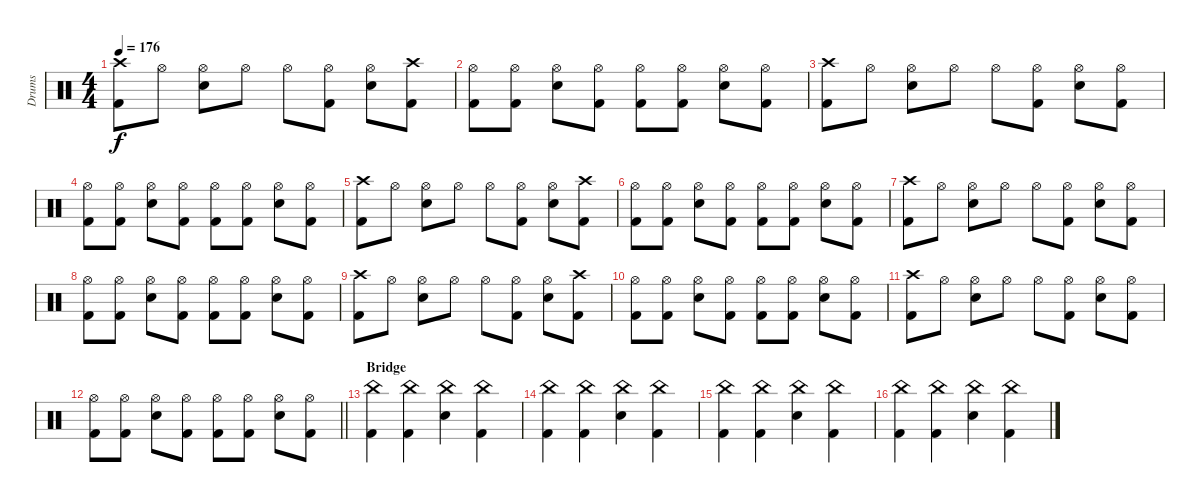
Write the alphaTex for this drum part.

\track ("Drums" "Drums") {instrument percussion}
\staff {score}
\articulation defaults
\ts (4 4)
\tempo 176
\clef neutral
\ks c
("Crash high (hit)" "Kick (hit) 2").8{dy f} "Hi-Hat (open)".8 ("Hi-Hat (open)" "Electric Snare (hit)").8 "Hi-Hat (open)".8 "Hi-Hat (open)".8 ("Hi-Hat (open)" "Kick (hit) 2").8 ("Hi-Hat (open)" "Electric Snare (hit)").8 ("Crash high (hit)" "Kick (hit) 2").8 |
("Hi-Hat (open)" "Kick (hit) 2").8 ("Hi-Hat (open)" "Kick (hit) 2").8 ("Hi-Hat (open)" "Electric Snare (hit)").8 ("Hi-Hat (open)" "Kick (hit) 2").8 ("Hi-Hat (open)" "Kick (hit) 2").8 ("Hi-Hat (open)" "Kick (hit) 2").8 ("Hi-Hat (open)" "Electric Snare (hit)").8 ("Hi-Hat (open)" "Kick (hit) 2").8 |
("Crash high (hit)" "Kick (hit) 2").8 "Hi-Hat (open)".8 ("Hi-Hat (open)" "Electric Snare (hit)").8 "Hi-Hat (open)".8 "Hi-Hat (open)".8 ("Hi-Hat (open)" "Kick (hit) 2").8 ("Hi-Hat (open)" "Electric Snare (hit)").8 ("Hi-Hat (open)" "Kick (hit) 2").8 |
("Hi-Hat (open)" "Kick (hit) 2").8 ("Hi-Hat (open)" "Kick (hit) 2").8 ("Hi-Hat (open)" "Electric Snare (hit)").8 ("Hi-Hat (open)" "Kick (hit) 2").8 ("Hi-Hat (open)" "Kick (hit) 2").8 ("Hi-Hat (open)" "Kick (hit) 2").8 ("Hi-Hat (open)" "Electric Snare (hit)").8 ("Hi-Hat (open)" "Kick (hit) 2").8 |
("Crash high (hit)" "Kick (hit) 2").8 "Hi-Hat (open)".8 ("Hi-Hat (open)" "Electric Snare (hit)").8 "Hi-Hat (open)".8 "Hi-Hat (open)".8 ("Hi-Hat (open)" "Kick (hit) 2").8 ("Hi-Hat (open)" "Electric Snare (hit)").8 ("Crash high (hit)" "Kick (hit) 2").8 |
("Hi-Hat (open)" "Kick (hit) 2").8 ("Hi-Hat (open)" "Kick (hit) 2").8 ("Hi-Hat (open)" "Electric Snare (hit)").8 ("Hi-Hat (open)" "Kick (hit) 2").8 ("Hi-Hat (open)" "Kick (hit) 2").8 ("Hi-Hat (open)" "Kick (hit) 2").8 ("Hi-Hat (open)" "Electric Snare (hit)").8 ("Hi-Hat (open)" "Kick (hit) 2").8 |
("Crash high (hit)" "Kick (hit) 2").8 "Hi-Hat (open)".8 ("Hi-Hat (open)" "Electric Snare (hit)").8 "Hi-Hat (open)".8 "Hi-Hat (open)".8 ("Hi-Hat (open)" "Kick (hit) 2").8 ("Hi-Hat (open)" "Electric Snare (hit)").8 ("Hi-Hat (open)" "Kick (hit) 2").8 |
("Hi-Hat (open)" "Kick (hit) 2").8 ("Hi-Hat (open)" "Kick (hit) 2").8 ("Hi-Hat (open)" "Electric Snare (hit)").8 ("Hi-Hat (open)" "Kick (hit) 2").8 ("Hi-Hat (open)" "Kick (hit) 2").8 ("Hi-Hat (open)" "Kick (hit) 2").8 ("Hi-Hat (open)" "Electric Snare (hit)").8 ("Hi-Hat (open)" "Kick (hit) 2").8 |
("Crash high (hit)" "Kick (hit) 2").8 "Hi-Hat (open)".8 ("Hi-Hat (open)" "Electric Snare (hit)").8 "Hi-Hat (open)".8 "Hi-Hat (open)".8 ("Hi-Hat (open)" "Kick (hit) 2").8 ("Hi-Hat (open)" "Electric Snare (hit)").8 ("Crash high (hit)" "Kick (hit) 2").8 |
("Hi-Hat (open)" "Kick (hit) 2").8 ("Hi-Hat (open)" "Kick (hit) 2").8 ("Hi-Hat (open)" "Electric Snare (hit)").8 ("Hi-Hat (open)" "Kick (hit) 2").8 ("Hi-Hat (open)" "Kick (hit) 2").8 ("Hi-Hat (open)" "Kick (hit) 2").8 ("Hi-Hat (open)" "Electric Snare (hit)").8 ("Hi-Hat (open)" "Kick (hit) 2").8 |
("Crash high (hit)" "Kick (hit) 2").8 "Hi-Hat (open)".8 ("Hi-Hat (open)" "Electric Snare (hit)").8 "Hi-Hat (open)".8 "Hi-Hat (open)".8 ("Hi-Hat (open)" "Kick (hit) 2").8 ("Hi-Hat (open)" "Electric Snare (hit)").8 ("Hi-Hat (open)" "Kick (hit) 2").8 |
\barLineRight lightlight
("Hi-Hat (open)" "Kick (hit) 2").8 ("Hi-Hat (open)" "Kick (hit) 2").8 ("Hi-Hat (open)" "Electric Snare (hit)").8 ("Hi-Hat (open)" "Kick (hit) 2").8 ("Hi-Hat (open)" "Kick (hit) 2").8 ("Hi-Hat (open)" "Kick (hit) 2").8 ("Hi-Hat (open)" "Electric Snare (hit)").8 ("Hi-Hat (open)" "Kick (hit) 2").8 |
\section ("" "Bridge")
("China (hit)" "Kick (hit) 2").4 ("China (hit)" "Kick (hit) 2").4 ("China (hit)" "Electric Snare (hit)").4 ("China (hit)" "Kick (hit) 2").4 |
("China (hit)" "Kick (hit) 2").4 ("China (hit)" "Kick (hit) 2").4 ("China (hit)" "Electric Snare (hit)").4 ("China (hit)" "Kick (hit) 2").4 |
("China (hit)" "Kick (hit) 2").4 ("China (hit)" "Kick (hit) 2").4 ("China (hit)" "Electric Snare (hit)").4 ("China (hit)" "Kick (hit) 2").4 |
("China (hit)" "Kick (hit) 2").4 ("China (hit)" "Kick (hit) 2").4 ("China (hit)" "Electric Snare (hit)").4 ("China (hit)" "Kick (hit) 2").4
